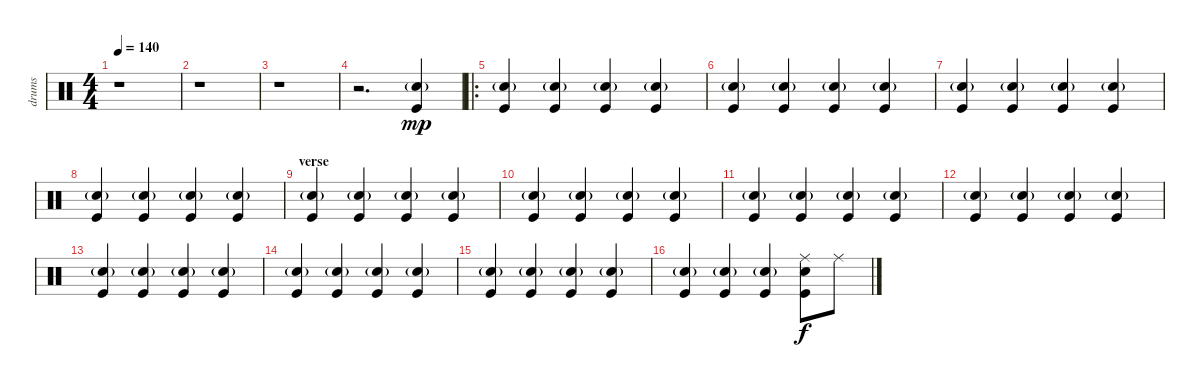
\track ("drums" "drums") {instrument percussion}
\staff {score}
\articulation defaults
\ts (4 4)
\tempo 140
\clef neutral
\ks c
r.1{dy mp} |
r.1 |
r.1 |
r.2{d} ("Snare (hit) 2"{g} "Kick (hit)").4 |
\ro
("Snare (hit) 2"{g} "Kick (hit)").4 ("Snare (hit) 2"{g} "Kick (hit)").4 ("Snare (hit) 2"{g} "Kick (hit)").4 ("Snare (hit) 2"{g} "Kick (hit)").4 |
("Snare (hit) 2"{g} "Kick (hit)").4 ("Snare (hit) 2"{g} "Kick (hit)").4 ("Snare (hit) 2"{g} "Kick (hit)").4 ("Snare (hit) 2"{g} "Kick (hit)").4 |
("Snare (hit) 2"{g} "Kick (hit)").4 ("Snare (hit) 2"{g} "Kick (hit)").4 ("Snare (hit) 2"{g} "Kick (hit)").4 ("Snare (hit) 2"{g} "Kick (hit)").4 |
("Snare (hit) 2"{g} "Kick (hit)").4 ("Snare (hit) 2"{g} "Kick (hit)").4 ("Snare (hit) 2"{g} "Kick (hit)").4 ("Snare (hit) 2"{g} "Kick (hit)").4 |
\section ("" "verse")
("Snare (hit) 2"{g} "Kick (hit)").4 ("Snare (hit) 2"{g} "Kick (hit)").4 ("Snare (hit) 2"{g} "Kick (hit)").4 ("Snare (hit) 2"{g} "Kick (hit)").4 |
("Snare (hit) 2"{g} "Kick (hit)").4 ("Snare (hit) 2"{g} "Kick (hit)").4 ("Snare (hit) 2"{g} "Kick (hit)").4 ("Snare (hit) 2"{g} "Kick (hit)").4 |
("Snare (hit) 2"{g} "Kick (hit)").4 ("Snare (hit) 2"{g} "Kick (hit)").4 ("Snare (hit) 2"{g} "Kick (hit)").4 ("Snare (hit) 2"{g} "Kick (hit)").4 |
("Snare (hit) 2"{g} "Kick (hit)").4 ("Snare (hit) 2"{g} "Kick (hit)").4 ("Snare (hit) 2"{g} "Kick (hit)").4 ("Snare (hit) 2"{g} "Kick (hit)").4 |
("Snare (hit) 2"{g} "Kick (hit)").4 ("Snare (hit) 2"{g} "Kick (hit)").4 ("Snare (hit) 2"{g} "Kick (hit)").4 ("Snare (hit) 2"{g} "Kick (hit)").4 |
("Snare (hit) 2"{g} "Kick (hit)").4 ("Snare (hit) 2"{g} "Kick (hit)").4 ("Snare (hit) 2"{g} "Kick (hit)").4 ("Snare (hit) 2"{g} "Kick (hit)").4 |
("Snare (hit) 2"{g} "Kick (hit)").4 ("Snare (hit) 2"{g} "Kick (hit)").4 ("Snare (hit) 2"{g} "Kick (hit)").4 ("Snare (hit) 2"{g} "Kick (hit)").4 |
("Snare (hit) 2"{g} "Kick (hit)").4 ("Snare (hit) 2"{g} "Kick (hit)").4 ("Snare (hit) 2"{g} "Kick (hit)").4 ("Ride (middle)" "Snare (hit) 2" "Kick (hit)").8{dy f} "Ride (middle)".8
